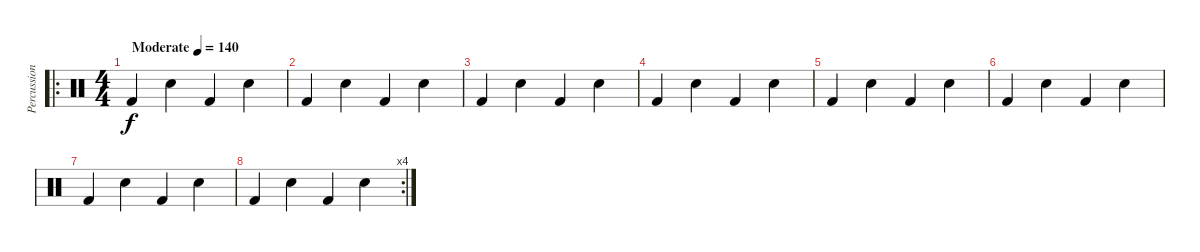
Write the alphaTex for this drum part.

\track ("Percussion" "Percussion") {instrument percussion}
\staff {score}
\articulation defaults
\ro
\ts (4 4)
\tempo (140 "Moderate")
\clef neutral
\ks c "Kick (hit) 2".4{dy f} "Electric Snare (hit)".4 "Kick (hit) 2".4 "Electric Snare (hit)".4
|
"Kick (hit) 2".4 "Electric Snare (hit)".4 "Kick (hit) 2".4 "Electric Snare (hit)".4 |
"Kick (hit) 2".4 "Electric Snare (hit)".4 "Kick (hit) 2".4 "Electric Snare (hit)".4 |
"Kick (hit) 2".4 "Electric Snare (hit)".4 "Kick (hit) 2".4 "Electric Snare (hit)".4 |
"Kick (hit) 2".4 "Electric Snare (hit)".4 "Kick (hit) 2".4 "Electric Snare (hit)".4 |
"Kick (hit) 2".4 "Electric Snare (hit)".4 "Kick (hit) 2".4 "Electric Snare (hit)".4 |
"Kick (hit) 2".4 "Electric Snare (hit)".4 "Kick (hit) 2".4 "Electric Snare (hit)".4 |
\rc 4 "Kick (hit) 2".4 "Electric Snare (hit)".4 "Kick (hit) 2".4 "Electric Snare (hit)".4
